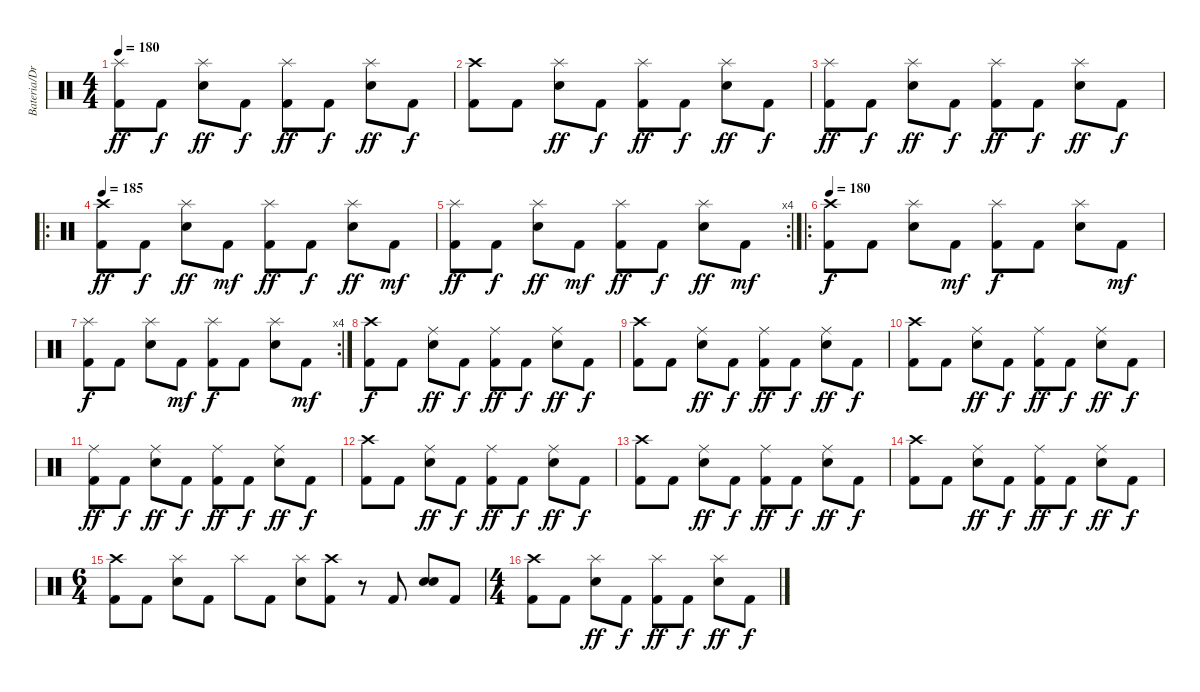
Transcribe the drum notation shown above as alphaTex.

\track ("Bateria/Drums" "Bateria/Dr") {instrument percussion}
\staff {score}
\articulation defaults
\ts (4 4)
\tempo 180
\clef neutral
\ks c
("Kick (hit) 2" "Splash (hit)").8{dy ff} "Kick (hit) 2".8{dy f} ("Electric Snare (hit)" "Splash (hit)").8{dy ff} "Kick (hit) 2".8{dy f} ("Kick (hit) 2" "Splash (hit)").8{dy ff} "Kick (hit) 2".8{dy f} ("Electric Snare (hit)" "Splash (hit)").8{dy ff} "Kick (hit) 2".8{dy f} |
("Kick (hit) 2" "Crash high (hit)").8 "Kick (hit) 2".8 ("Electric Snare (hit)" "Splash (hit)").8{dy ff} "Kick (hit) 2".8{dy f} ("Kick (hit) 2" "Splash (hit)").8{dy ff} "Kick (hit) 2".8{dy f} ("Electric Snare (hit)" "Splash (hit)").8{dy ff} "Kick (hit) 2".8{dy f} |
("Kick (hit) 2" "Splash (hit)").8{dy ff} "Kick (hit) 2".8{dy f} ("Electric Snare (hit)" "Splash (hit)").8{dy ff} "Kick (hit) 2".8{dy f} ("Kick (hit) 2" "Splash (hit)").8{dy ff} "Kick (hit) 2".8{dy f} ("Electric Snare (hit)" "Splash (hit)").8{dy ff} "Kick (hit) 2".8{dy f} |
\ro
\tempo 185
("Kick (hit) 2" "Crash high (hit)").8{dy ff} "Kick (hit) 2".8{dy f} ("Electric Snare (hit)" "Splash (hit)").8{dy ff} "Kick (hit) 2".8{dy mf} ("Kick (hit) 2" "Splash (hit)").8{dy ff} "Kick (hit) 2".8{dy f} ("Electric Snare (hit)" "Splash (hit)").8{dy ff} "Kick (hit) 2".8{dy mf} |
\rc 4
("Kick (hit) 2" "Splash (hit)").8{dy ff} "Kick (hit) 2".8{dy f} ("Electric Snare (hit)" "Splash (hit)").8{dy ff} "Kick (hit) 2".8{dy mf} ("Kick (hit) 2" "Splash (hit)").8{dy ff} "Kick (hit) 2".8{dy f} ("Electric Snare (hit)" "Splash (hit)").8{dy ff} "Kick (hit) 2".8{dy mf} |
\ro
\tempo 180
("Kick (hit) 2" "Crash high (hit)").8{dy f} "Kick (hit) 2".8 ("Electric Snare (hit)" "Splash (hit)").8 "Kick (hit) 2".8{dy mf} ("Kick (hit) 2" "Splash (hit)").8{dy f} "Kick (hit) 2".8 ("Electric Snare (hit)" "Splash (hit)").8 "Kick (hit) 2".8{dy mf} |
\rc 4
("Kick (hit) 2" "Splash (hit)").8{dy f} "Kick (hit) 2".8 ("Electric Snare (hit)" "Splash (hit)").8 "Kick (hit) 2".8{dy mf} ("Kick (hit) 2" "Splash (hit)").8{dy f} "Kick (hit) 2".8 ("Electric Snare (hit)" "Splash (hit)").8 "Kick (hit) 2".8{dy mf} |
("Kick (hit) 2" "Crash high (hit)").8{dy f} "Kick (hit) 2".8 ("Electric Snare (hit)" "Ride (middle)").8{dy ff} "Kick (hit) 2".8{dy f} ("Kick (hit) 2" "Ride (middle)").8{dy ff} "Kick (hit) 2".8{dy f} ("Electric Snare (hit)" "Ride (middle)").8{dy ff} "Kick (hit) 2".8{dy f} |
("Kick (hit) 2" "Crash high (hit)").8 "Kick (hit) 2".8 ("Electric Snare (hit)" "Ride (middle)").8{dy ff} "Kick (hit) 2".8{dy f} ("Kick (hit) 2" "Ride (middle)").8{dy ff} "Kick (hit) 2".8{dy f} ("Electric Snare (hit)" "Ride (middle)").8{dy ff} "Kick (hit) 2".8{dy f} |
("Kick (hit) 2" "Crash high (hit)").8 "Kick (hit) 2".8 ("Electric Snare (hit)" "Ride (middle)").8{dy ff} "Kick (hit) 2".8{dy f} ("Kick (hit) 2" "Ride (middle)").8{dy ff} "Kick (hit) 2".8{dy f} ("Electric Snare (hit)" "Ride (middle)").8{dy ff} "Kick (hit) 2".8{dy f} |
("Kick (hit) 2" "Ride (middle)").8{dy ff} "Kick (hit) 2".8{dy f} ("Electric Snare (hit)" "Ride (middle)").8{dy ff} "Kick (hit) 2".8{dy f} ("Kick (hit) 2" "Ride (middle)").8{dy ff} "Kick (hit) 2".8{dy f} ("Electric Snare (hit)" "Ride (middle)").8{dy ff} "Kick (hit) 2".8{dy f} |
("Kick (hit) 2" "Crash high (hit)").8 "Kick (hit) 2".8 ("Electric Snare (hit)" "Ride (middle)").8{dy ff} "Kick (hit) 2".8{dy f} ("Kick (hit) 2" "Ride (middle)").8{dy ff} "Kick (hit) 2".8{dy f} ("Electric Snare (hit)" "Ride (middle)").8{dy ff} "Kick (hit) 2".8{dy f} |
("Kick (hit) 2" "Crash high (hit)").8 "Kick (hit) 2".8 ("Electric Snare (hit)" "Ride (middle)").8{dy ff} "Kick (hit) 2".8{dy f} ("Kick (hit) 2" "Ride (middle)").8{dy ff} "Kick (hit) 2".8{dy f} ("Electric Snare (hit)" "Ride (middle)").8{dy ff} "Kick (hit) 2".8{dy f} |
("Kick (hit) 2" "Crash high (hit)").8 "Kick (hit) 2".8 ("Electric Snare (hit)" "Ride (middle)").8{dy ff} "Kick (hit) 2".8{dy f} ("Kick (hit) 2" "Ride (middle)").8{dy ff} "Kick (hit) 2".8{dy f} ("Electric Snare (hit)" "Ride (middle)").8{dy ff} "Kick (hit) 2".8{dy f} |
\ts (6 4)
("Kick (hit) 2" "Crash high (hit)").8 "Kick (hit) 2".8 ("Electric Snare (hit)" "Splash (hit)").8 "Kick (hit) 2".8 "Splash (hit)".8 "Kick (hit) 2".8 ("Electric Snare (hit)" "Splash (hit)").8 ("Kick (hit) 2" "Crash high (hit)").8 r.8 "Kick (hit) 2".8 ("Electric Snare (hit)" "Electric Snare (hit)").8{bd 480} "Kick (hit) 2".8 |
\ts (4 4)
("Kick (hit) 2" "Crash high (hit)").8 "Kick (hit) 2".8 ("Electric Snare (hit)" "Splash (hit)").8{dy ff} "Kick (hit) 2".8{dy f} ("Kick (hit) 2" "Splash (hit)").8{dy ff} "Kick (hit) 2".8{dy f} ("Electric Snare (hit)" "Splash (hit)").8{dy ff} "Kick (hit) 2".8{dy f}
